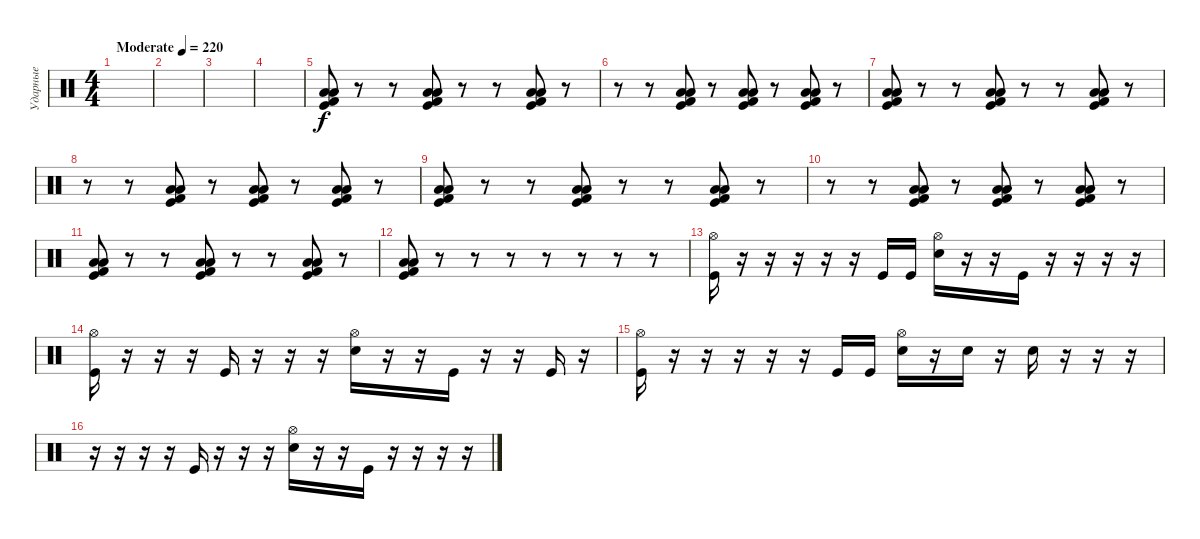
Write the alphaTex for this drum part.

\track ("Ударные" "Ударные") {instrument percussion}
\staff {score}
\articulation defaults
\ts (4 4)
\tempo (220 "Moderate")
\clef neutral
\ks c
|
|
|
|
("Low Tom (hit)" "Low Floor Tom (hit)" "Kick (hit)" "Kick (hit) 2").8 r.8 r.8 ("Low Tom (hit)" "Low Floor Tom (hit)" "Kick (hit)" "Kick (hit) 2").8 r.8 r.8 ("Low Tom (hit)" "Low Floor Tom (hit)" "Kick (hit)" "Kick (hit) 2").8 r.8 |
r.8 r.8 ("Low Tom (hit)" "Low Floor Tom (hit)" "Kick (hit)" "Kick (hit) 2").8 r.8 ("Low Tom (hit)" "Low Floor Tom (hit)" "Kick (hit)" "Kick (hit) 2").8 r.8 ("Low Tom (hit)" "Low Floor Tom (hit)" "Kick (hit)" "Kick (hit) 2").8 r.8 |
("Low Tom (hit)" "Low Floor Tom (hit)" "Kick (hit)" "Kick (hit) 2").8 r.8 r.8 ("Low Tom (hit)" "Low Floor Tom (hit)" "Kick (hit)" "Kick (hit) 2").8 r.8 r.8 ("Low Tom (hit)" "Low Floor Tom (hit)" "Kick (hit)" "Kick (hit) 2").8 r.8 |
r.8 r.8 ("Low Tom (hit)" "Low Floor Tom (hit)" "Kick (hit)" "Kick (hit) 2").8 r.8 ("Low Tom (hit)" "Low Floor Tom (hit)" "Kick (hit)" "Kick (hit) 2").8 r.8 ("Low Tom (hit)" "Low Floor Tom (hit)" "Kick (hit)" "Kick (hit) 2").8 r.8 |
("Low Tom (hit)" "Low Floor Tom (hit)" "Kick (hit)" "Kick (hit) 2").8 r.8 r.8 ("Low Tom (hit)" "Low Floor Tom (hit)" "Kick (hit)" "Kick (hit) 2").8 r.8 r.8 ("Low Tom (hit)" "Low Floor Tom (hit)" "Kick (hit)" "Kick (hit) 2").8 r.8 |
r.8 r.8 ("Low Tom (hit)" "Low Floor Tom (hit)" "Kick (hit)" "Kick (hit) 2").8 r.8 ("Low Tom (hit)" "Low Floor Tom (hit)" "Kick (hit)" "Kick (hit) 2").8 r.8 ("Low Tom (hit)" "Low Floor Tom (hit)" "Kick (hit)" "Kick (hit) 2").8 r.8 |
("Low Tom (hit)" "Low Floor Tom (hit)" "Kick (hit)" "Kick (hit) 2").8 r.8 r.8 ("Low Tom (hit)" "Low Floor Tom (hit)" "Kick (hit)" "Kick (hit) 2").8 r.8 r.8 ("Low Tom (hit)" "Low Floor Tom (hit)" "Kick (hit)" "Kick (hit) 2").8 r.8 |
("Low Tom (hit)" "Low Floor Tom (hit)" "Kick (hit)" "Kick (hit) 2").8 r.8 r.8 r.8 r.8 r.8 r.8 r.8 |
("Hi-Hat (open)" "Kick (hit)").16 r.16 r.16 r.16 r.16 r.16 "Kick (hit)".16 "Kick (hit)".16 ("Hi-Hat (open)" "Electric Snare (hit)").16 r.16 r.16 "Kick (hit)".16 r.16 r.16 r.16 r.16 |
("Hi-Hat (open)" "Kick (hit)").16 r.16 r.16 r.16 "Kick (hit)".16 r.16 r.16 r.16 ("Hi-Hat (open)" "Electric Snare (hit)").16 r.16 r.16 "Kick (hit)".16 r.16 r.16 "Kick (hit)".16 r.16 |
("Hi-Hat (open)" "Kick (hit)").16 r.16 r.16 r.16 r.16 r.16 "Kick (hit)".16 "Kick (hit)".16 ("Hi-Hat (open)" "Electric Snare (hit)").16 r.16 "Electric Snare (hit)".16 r.16 "Electric Snare (hit)".16 r.16 r.16 r.16 |
r.16 r.16 r.16 r.16 "Kick (hit)".16 r.16 r.16 r.16 ("Hi-Hat (open)" "Electric Snare (hit)").16 r.16 r.16 "Kick (hit)".16 r.16 r.16 r.16 r.16
